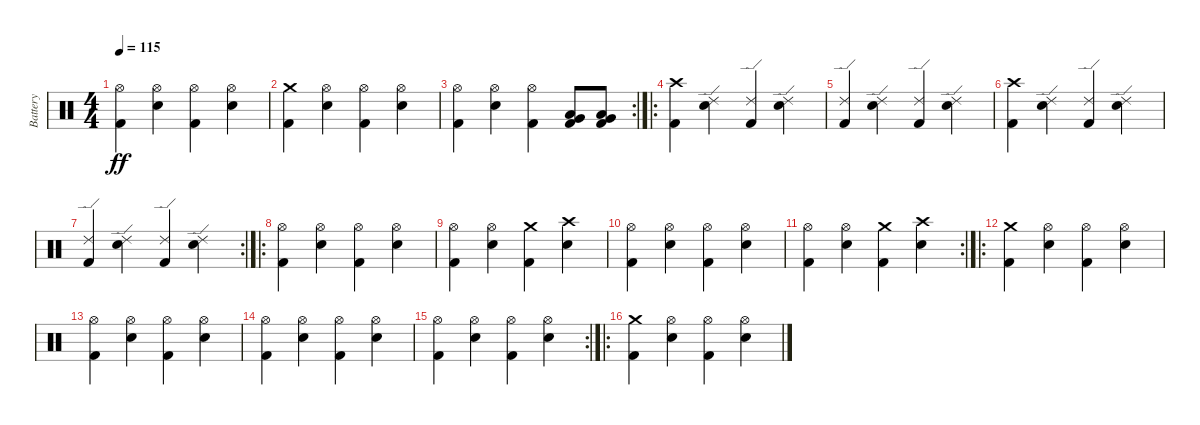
\track ("Battery" "Battery") {instrument percussion}
\staff {score}
\articulation defaults
\ts (4 4)
\tempo 115
\clef neutral
\ks c
("Hi-Hat (open)" "Kick (hit) 2").4{dy ff} ("Hi-Hat (open)" "Snare (hit) 2").4 ("Hi-Hat (open)" "Kick (hit) 2").4 ("Hi-Hat (open)" "Snare (hit) 2").4 |
("Crash medium (hit)" "Kick (hit) 2").4 ("Hi-Hat (open)" "Snare (hit) 2").4 ("Hi-Hat (open)" "Kick (hit) 2").4 ("Hi-Hat (open)" "Snare (hit) 2").4 |
\rc 2
("Hi-Hat (open)" "Kick (hit) 2").4 ("Hi-Hat (open)" "Snare (hit) 2").4 ("Hi-Hat (open)" "Kick (hit) 2").4 ("Low Tom (hit)" "Very Low Tom (hit)" "Kick (hit) 2").8 ("Low Tom (hit)" "Very Low Tom (hit)" "Kick (hit) 2").8 |
\ro
("Crash high (hit)" "Kick (hit) 2").4 ("Ride (edge) 2" "Snare (hit) 2").4 ("Ride (edge) 2" "Kick (hit) 2").4 ("Ride (edge) 2" "Snare (hit) 2").4 |
("Ride (edge) 2" "Kick (hit) 2").4 ("Ride (edge) 2" "Snare (hit) 2").4 ("Ride (edge) 2" "Kick (hit) 2").4 ("Ride (edge) 2" "Snare (hit) 2").4 |
("Crash high (hit)" "Kick (hit) 2").4 ("Ride (edge) 2" "Snare (hit) 2").4 ("Ride (edge) 2" "Kick (hit) 2").4 ("Ride (edge) 2" "Snare (hit) 2").4 |
\rc 2
("Ride (edge) 2" "Kick (hit) 2").4 ("Ride (edge) 2" "Snare (hit) 2").4 ("Ride (edge) 2" "Kick (hit) 2").4 ("Ride (edge) 2" "Snare (hit) 2").4 |
\ro
("Hi-Hat (open)" "Kick (hit) 2").4 ("Hi-Hat (open)" "Snare (hit) 2").4 ("Hi-Hat (open)" "Kick (hit) 2").4 ("Hi-Hat (open)" "Snare (hit) 2").4 |
("Hi-Hat (open)" "Kick (hit) 2").4 ("Hi-Hat (open)" "Snare (hit) 2").4 ("Crash medium (hit)" "Kick (hit) 2").4 ("Crash high (hit)" "Snare (hit) 2").4 |
("Hi-Hat (open)" "Kick (hit) 2").4 ("Hi-Hat (open)" "Snare (hit) 2").4 ("Hi-Hat (open)" "Kick (hit) 2").4 ("Hi-Hat (open)" "Snare (hit) 2").4 |
\rc 2
("Hi-Hat (open)" "Kick (hit) 2").4 ("Hi-Hat (open)" "Snare (hit) 2").4 ("Crash medium (hit)" "Kick (hit) 2").4 ("Crash high (hit)" "Snare (hit) 2").4 |
\ro
("Crash medium (hit)" "Kick (hit) 2").4 ("Hi-Hat (open)" "Snare (hit) 2").4 ("Hi-Hat (open)" "Kick (hit) 2").4 ("Hi-Hat (open)" "Snare (hit) 2").4 |
("Hi-Hat (open)" "Kick (hit) 2").4 ("Hi-Hat (open)" "Snare (hit) 2").4 ("Hi-Hat (open)" "Kick (hit) 2").4 ("Hi-Hat (open)" "Snare (hit) 2").4 |
("Hi-Hat (open)" "Kick (hit) 2").4 ("Hi-Hat (open)" "Snare (hit) 2").4 ("Hi-Hat (open)" "Kick (hit) 2").4 ("Hi-Hat (open)" "Snare (hit) 2").4 |
\rc 2
("Hi-Hat (open)" "Kick (hit) 2").4 ("Hi-Hat (open)" "Snare (hit) 2").4 ("Hi-Hat (open)" "Kick (hit) 2").4 ("Hi-Hat (open)" "Snare (hit) 2").4 |
\ro
("Crash medium (hit)" "Kick (hit) 2").4 ("Hi-Hat (open)" "Snare (hit) 2").4 ("Hi-Hat (open)" "Kick (hit) 2").4 ("Hi-Hat (open)" "Snare (hit) 2").4
